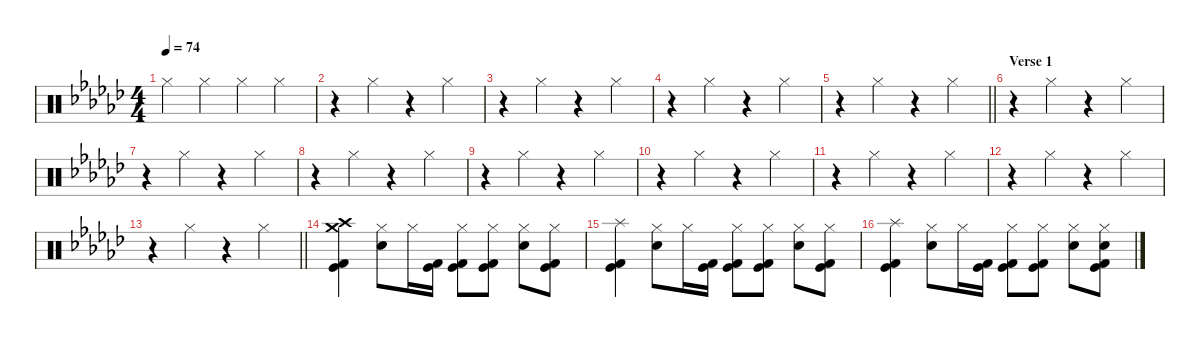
\defaultSystemsLayout 4
\hideDynamics
\bracketExtendMode nobrackets
\singleTrackTrackNamePolicy hidden
\multiTrackTrackNamePolicy hidden
\firstSystemTrackNameMode fullname
\firstSystemTrackNameOrientation horizontal
\otherSystemsTrackNameOrientation horizontal
\track ("Drums, Ulrich" "drm.") {defaultSystemsLayout 4 instrument percussion}
\staff {score}
\articulation defaults
\ts (4 4)
\beaming (8 2 2 2 2)
\tempo 74
\clef neutral
\ks ebminor "Hi-Hat (closed)"{acc forcenatural}.4{dy f beam Down} "Hi-Hat (closed)"{acc forcenatural}.4{beam Down} "Hi-Hat (closed)"{acc forcenatural}.4{beam Down} "Hi-Hat (closed)"{acc forcenatural}.4{beam Down}
|
r.4{beam Down} "Hi-Hat (closed)"{acc forcenatural}.4{beam Down} r.4{beam Down} "Hi-Hat (closed)"{acc forcenatural}.4{beam Down} |
r.4{beam Down} "Hi-Hat (closed)"{acc forcenatural}.4{beam Down} r.4{beam Down} "Hi-Hat (closed)"{acc forcenatural}.4{beam Down} |
r.4{beam Down} "Hi-Hat (closed)"{acc forcenatural}.4{beam Down} r.4{beam Down} "Hi-Hat (closed)"{acc forcenatural}.4{beam Down} |
\barLineRight lightlight
r.4{beam Down} "Hi-Hat (closed)"{acc forcenatural}.4{beam Down} r.4{beam Down} "Hi-Hat (closed)"{acc forcenatural}.4{beam Down} |
\section ("" "Verse 1")
r.4{beam Down} "Hi-Hat (closed)"{acc forcenatural}.4{beam Down} r.4{beam Down} "Hi-Hat (closed)"{acc forcenatural}.4{beam Down} |
r.4{beam Down} "Hi-Hat (closed)"{acc forcenatural}.4{beam Down} r.4{beam Down} "Hi-Hat (closed)"{acc forcenatural}.4{beam Down} |
r.4{beam Down} "Hi-Hat (closed)"{acc forcenatural}.4{beam Down} r.4{beam Down} "Hi-Hat (closed)"{acc forcenatural}.4{beam Down} |
r.4{beam Down} "Hi-Hat (closed)"{acc forcenatural}.4{beam Down} r.4{beam Down} "Hi-Hat (closed)"{acc forcenatural}.4{beam Down} |
r.4{beam Down} "Hi-Hat (closed)"{acc forcenatural}.4{beam Down} r.4{beam Down} "Hi-Hat (closed)"{acc forcenatural}.4{beam Down} |
r.4{beam Down} "Hi-Hat (closed)"{acc forcenatural}.4{beam Down} r.4{beam Down} "Hi-Hat (closed)"{acc forcenatural}.4{beam Down} |
r.4{beam Down} "Hi-Hat (closed)"{acc forcenatural}.4{beam Down} r.4{beam Down} "Hi-Hat (closed)"{acc forcenatural}.4{beam Down} |
\barLineRight lightlight
r.4{beam Down} "Hi-Hat (closed)"{acc forcenatural}.4{beam Down} r.4{beam Down} "Hi-Hat (closed)"{acc forcenatural}.4{beam Down} |
("Crash medium (hit)"{acc forcenatural} "Crash high (hit)"{acc forcenatural} "Kick (hit) 2"{acc forcenatural} "Kick (hit)"{acc forcenatural}).4{beam Down} ("Hi-Hat (closed)"{acc forcenatural} "Snare (hit) 2"{acc forcenatural}).8{beam Down} "Hi-Hat (closed)"{acc forcenatural}.16{beam Down} ("Kick (hit) 2"{acc forcenatural} "Kick (hit)"{acc forcenatural}).16{beam Down} ("Hi-Hat (closed)"{acc forcenatural} "Kick (hit) 2"{acc forcenatural} "Kick (hit)"{acc forcenatural}).8{beam Down} ("Hi-Hat (closed)"{acc forcenatural} "Kick (hit)"{acc forcenatural} "Kick (hit) 2"{acc forcenatural}).8{beam Down} ("Hi-Hat (closed)"{acc forcenatural} "Snare (hit) 2"{acc forcenatural}).8{beam Down} ("Hi-Hat (closed)"{acc forcenatural} "Kick (hit) 2"{acc forcenatural} "Kick (hit)"{acc forcenatural}).8{beam Down} |
("Splash (hit)"{acc forcenatural} "Kick (hit) 2"{acc forcenatural} "Kick (hit)"{acc forcenatural}).4{beam Down} ("Hi-Hat (closed)"{acc forcenatural} "Snare (hit) 2"{acc forcenatural}).8{beam Down} "Hi-Hat (closed)"{acc forcenatural}.16{beam Down} ("Kick (hit) 2"{acc forcenatural} "Kick (hit)"{acc forcenatural}).16{beam Down} ("Hi-Hat (closed)"{acc forcenatural} "Kick (hit) 2"{acc forcenatural} "Kick (hit)"{acc forcenatural}).8{beam Down} ("Hi-Hat (closed)"{acc forcenatural} "Kick (hit)"{acc forcenatural} "Kick (hit) 2"{acc forcenatural}).8{beam Down} ("Hi-Hat (closed)"{acc forcenatural} "Snare (hit) 2"{acc forcenatural}).8{beam Down} ("Hi-Hat (closed)"{acc forcenatural} "Kick (hit) 2"{acc forcenatural} "Kick (hit)"{acc forcenatural}).8{beam Down} |
("Splash (hit)"{acc forcenatural} "Kick (hit) 2"{acc forcenatural} "Kick (hit)"{acc forcenatural}).4{beam Down} ("Hi-Hat (closed)"{acc forcenatural} "Snare (hit) 2"{acc forcenatural}).8{beam Down} "Hi-Hat (closed)"{acc forcenatural}.16{beam Down} ("Kick (hit) 2"{acc forcenatural} "Kick (hit)"{acc forcenatural}).16{beam Down} ("Hi-Hat (closed)"{acc forcenatural} "Kick (hit) 2"{acc forcenatural} "Kick (hit)"{acc forcenatural}).8{beam Down} ("Hi-Hat (closed)"{acc forcenatural} "Kick (hit)"{acc forcenatural} "Kick (hit) 2"{acc forcenatural}).8{beam Down} ("Hi-Hat (closed)"{acc forcenatural} "Snare (hit) 2"{acc forcenatural}).8{beam Down} ("Hi-Hat (closed)"{acc forcenatural} "Snare (hit) 2"{acc forcenatural} "Kick (hit) 2"{acc forcenatural} "Kick (hit)"{acc forcenatural}).8{beam Down}
